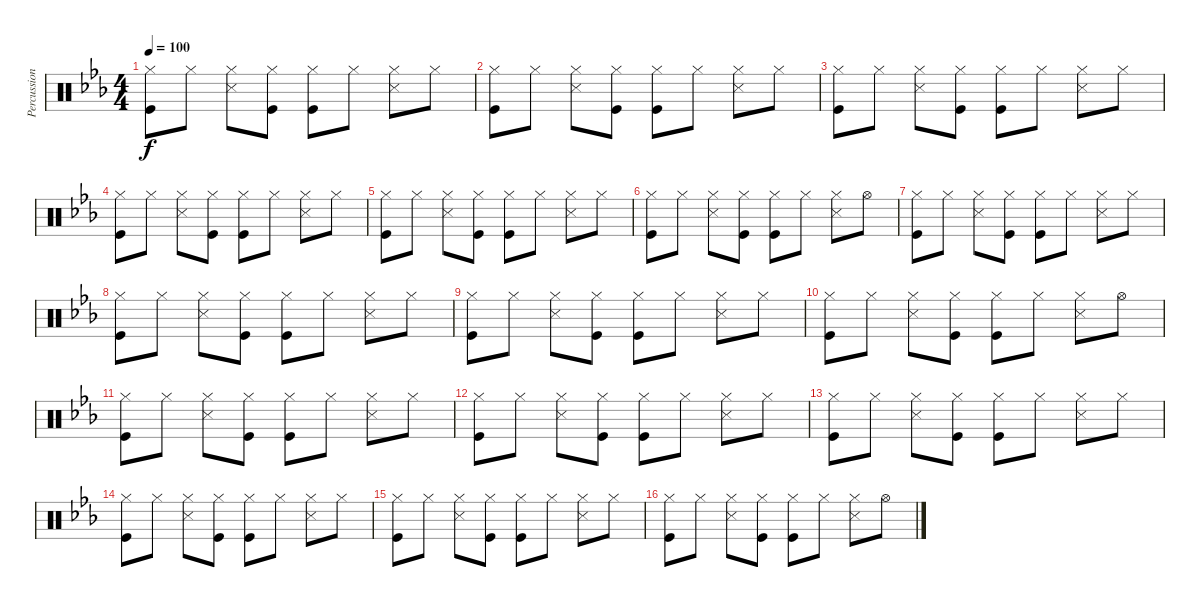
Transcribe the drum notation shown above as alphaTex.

\track ("Percussion" "Percussion") {instrument percussion}
\staff {score}
\articulation defaults
\ts (4 4)
\tempo 100
\clef neutral
\ks eb
("Hi-Hat (closed)" "Kick (hit)").8{dy f} "Hi-Hat (closed)".8 ("Hi-Hat (closed)" "Snare (side stick) 3").8 ("Hi-Hat (closed)" "Kick (hit)").8 ("Hi-Hat (closed)" "Kick (hit)").8 "Hi-Hat (closed)".8 ("Hi-Hat (closed)" "Snare (side stick) 3").8 "Hi-Hat (closed)".8 |
("Hi-Hat (closed)" "Kick (hit)").8 "Hi-Hat (closed)".8 ("Hi-Hat (closed)" "Snare (side stick) 3").8 ("Hi-Hat (closed)" "Kick (hit)").8 ("Hi-Hat (closed)" "Kick (hit)").8 "Hi-Hat (closed)".8 ("Hi-Hat (closed)" "Snare (side stick) 3").8 "Hi-Hat (closed)".8 |
("Hi-Hat (closed)" "Kick (hit)").8 "Hi-Hat (closed)".8 ("Hi-Hat (closed)" "Snare (side stick) 3").8 ("Hi-Hat (closed)" "Kick (hit)").8 ("Hi-Hat (closed)" "Kick (hit)").8 "Hi-Hat (closed)".8 ("Hi-Hat (closed)" "Snare (side stick) 3").8 "Hi-Hat (closed)".8 |
("Hi-Hat (closed)" "Kick (hit)").8 "Hi-Hat (closed)".8 ("Hi-Hat (closed)" "Snare (side stick) 3").8 ("Hi-Hat (closed)" "Kick (hit)").8 ("Hi-Hat (closed)" "Kick (hit)").8 "Hi-Hat (closed)".8 ("Hi-Hat (closed)" "Snare (side stick) 3").8 "Hi-Hat (closed)".8 |
("Hi-Hat (closed)" "Kick (hit)").8 "Hi-Hat (closed)".8 ("Hi-Hat (closed)" "Snare (side stick) 3").8 ("Hi-Hat (closed)" "Kick (hit)").8 ("Hi-Hat (closed)" "Kick (hit)").8 "Hi-Hat (closed)".8 ("Hi-Hat (closed)" "Snare (side stick) 3").8 "Hi-Hat (closed)".8 |
("Hi-Hat (closed)" "Kick (hit)").8 "Hi-Hat (closed)".8 ("Hi-Hat (closed)" "Snare (side stick) 3").8 ("Hi-Hat (closed)" "Kick (hit)").8 ("Hi-Hat (closed)" "Kick (hit)").8 "Hi-Hat (closed)".8 ("Hi-Hat (closed)" "Snare (side stick) 3").8 "Hi-Hat (open)".8 |
("Hi-Hat (closed)" "Kick (hit)").8 "Hi-Hat (closed)".8 ("Hi-Hat (closed)" "Snare (side stick) 3").8 ("Hi-Hat (closed)" "Kick (hit)").8 ("Hi-Hat (closed)" "Kick (hit)").8 "Hi-Hat (closed)".8 ("Hi-Hat (closed)" "Snare (side stick) 3").8 "Hi-Hat (closed)".8 |
("Hi-Hat (closed)" "Kick (hit)").8 "Hi-Hat (closed)".8 ("Hi-Hat (closed)" "Snare (side stick) 3").8 ("Hi-Hat (closed)" "Kick (hit)").8 ("Hi-Hat (closed)" "Kick (hit)").8 "Hi-Hat (closed)".8 ("Hi-Hat (closed)" "Snare (side stick) 3").8 "Hi-Hat (closed)".8 |
("Hi-Hat (closed)" "Kick (hit)").8 "Hi-Hat (closed)".8 ("Hi-Hat (closed)" "Snare (side stick) 3").8 ("Hi-Hat (closed)" "Kick (hit)").8 ("Hi-Hat (closed)" "Kick (hit)").8 "Hi-Hat (closed)".8 ("Hi-Hat (closed)" "Snare (side stick) 3").8 "Hi-Hat (closed)".8 |
("Hi-Hat (closed)" "Kick (hit)").8 "Hi-Hat (closed)".8 ("Hi-Hat (closed)" "Snare (side stick) 3").8 ("Hi-Hat (closed)" "Kick (hit)").8 ("Hi-Hat (closed)" "Kick (hit)").8 "Hi-Hat (closed)".8 ("Hi-Hat (closed)" "Snare (side stick) 3").8 "Hi-Hat (open)".8 |
("Hi-Hat (closed)" "Kick (hit)").8 "Hi-Hat (closed)".8 ("Hi-Hat (closed)" "Snare (side stick) 3").8 ("Hi-Hat (closed)" "Kick (hit)").8 ("Hi-Hat (closed)" "Kick (hit)").8 "Hi-Hat (closed)".8 ("Hi-Hat (closed)" "Snare (side stick) 3").8 "Hi-Hat (closed)".8 |
("Hi-Hat (closed)" "Kick (hit)").8 "Hi-Hat (closed)".8 ("Hi-Hat (closed)" "Snare (side stick) 3").8 ("Hi-Hat (closed)" "Kick (hit)").8 ("Hi-Hat (closed)" "Kick (hit)").8 "Hi-Hat (closed)".8 ("Hi-Hat (closed)" "Snare (side stick) 3").8 "Hi-Hat (closed)".8 |
("Hi-Hat (closed)" "Kick (hit)").8 "Hi-Hat (closed)".8 ("Hi-Hat (closed)" "Snare (side stick) 3").8 ("Hi-Hat (closed)" "Kick (hit)").8 ("Hi-Hat (closed)" "Kick (hit)").8 "Hi-Hat (closed)".8 ("Hi-Hat (closed)" "Snare (side stick) 3").8 "Hi-Hat (closed)".8 |
("Hi-Hat (closed)" "Kick (hit)").8 "Hi-Hat (closed)".8 ("Hi-Hat (closed)" "Snare (side stick) 3").8 ("Hi-Hat (closed)" "Kick (hit)").8 ("Hi-Hat (closed)" "Kick (hit)").8 "Hi-Hat (closed)".8 ("Hi-Hat (closed)" "Snare (side stick) 3").8 "Hi-Hat (closed)".8 |
("Hi-Hat (closed)" "Kick (hit)").8 "Hi-Hat (closed)".8 ("Hi-Hat (closed)" "Snare (side stick) 3").8 ("Hi-Hat (closed)" "Kick (hit)").8 ("Hi-Hat (closed)" "Kick (hit)").8 "Hi-Hat (closed)".8 ("Hi-Hat (closed)" "Snare (side stick) 3").8 "Hi-Hat (closed)".8 |
("Hi-Hat (closed)" "Kick (hit)").8 "Hi-Hat (closed)".8 ("Hi-Hat (closed)" "Snare (side stick) 3").8 ("Hi-Hat (closed)" "Kick (hit)").8 ("Hi-Hat (closed)" "Kick (hit)").8 "Hi-Hat (closed)".8 ("Hi-Hat (closed)" "Snare (side stick) 3").8 "Hi-Hat (open)".8
